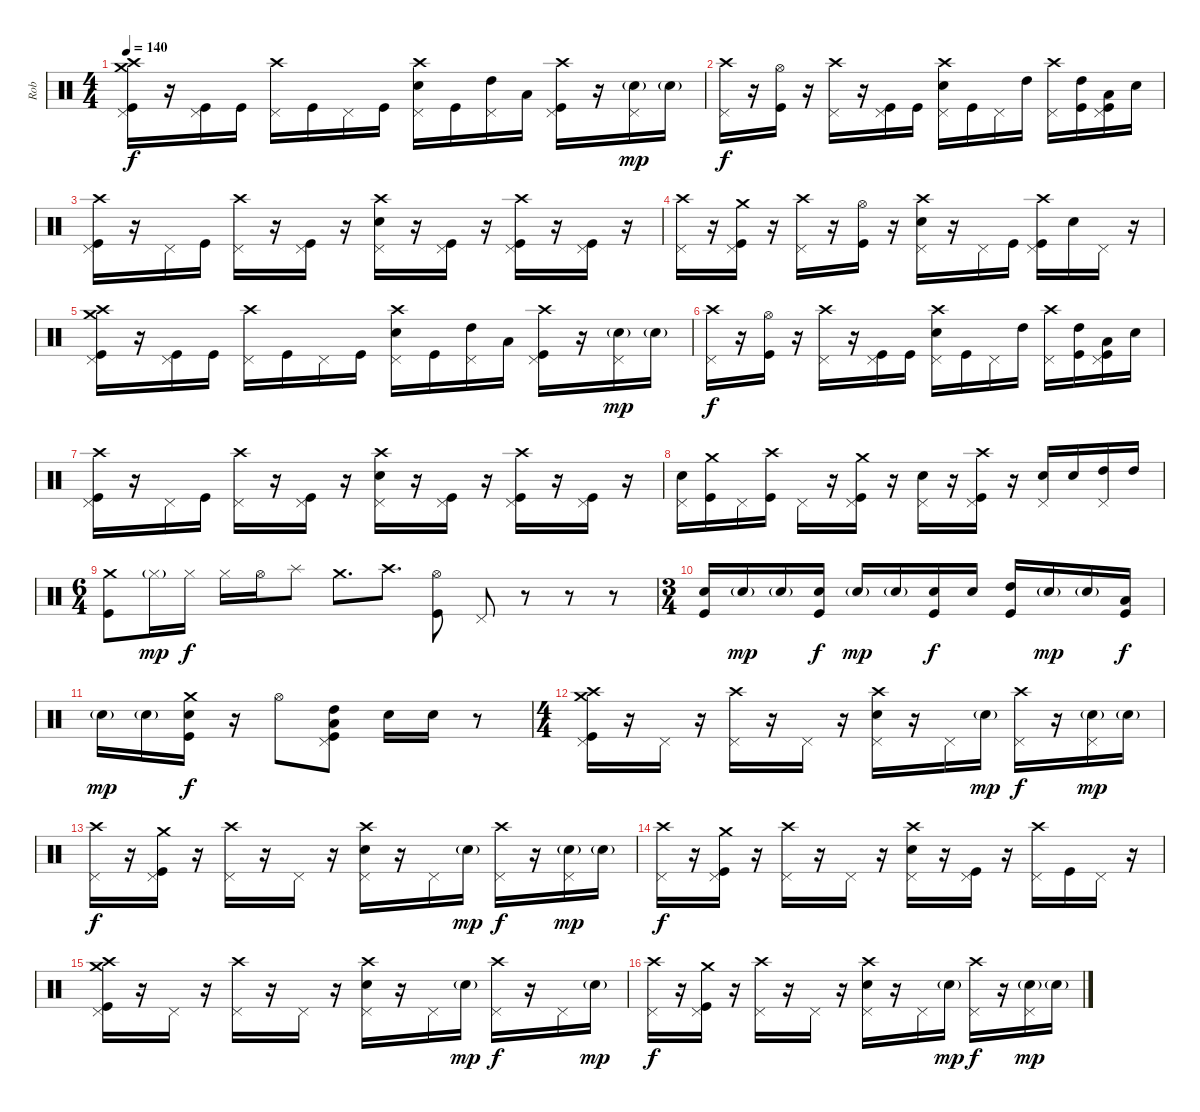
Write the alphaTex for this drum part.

\track ("Rob" "Rob") {instrument percussion}
\staff {score}
\articulation defaults
\ts (4 4)
\tempo 140
\clef neutral
\ks c
("Crash medium (hit)" "Crash high (hit)" "Pedal Hi-Hat (hit)" "Kick (hit)").16{dy f} r.16 ("Pedal Hi-Hat (hit)" "Kick (hit)").16 "Kick (hit)".16 ("Crash high (hit)" "Pedal Hi-Hat (hit)").16 "Kick (hit)".16 "Pedal Hi-Hat (hit)".16 "Kick (hit)".16 ("Electric Snare (hit)" "Crash high (hit)" "Pedal Hi-Hat (hit)").16 "Kick (hit)".16 ("High Tom (hit)" "Pedal Hi-Hat (hit)").16 "Low Tom (hit)".16 ("Crash high (hit)" "Pedal Hi-Hat (hit)" "Kick (hit)").16 r.16 ("Electric Snare (hit)"{g} "Pedal Hi-Hat (hit)").16{dy mp} "Electric Snare (hit)"{g}.16 |
("Crash high (hit)" "Pedal Hi-Hat (hit)").16{dy f} r.16 ("Hi-Hat (open)" "Kick (hit)").16 r.16 ("Crash high (hit)" "Pedal Hi-Hat (hit)").16 r.16 ("Pedal Hi-Hat (hit)" "Kick (hit)").16 "Kick (hit)".16 ("Electric Snare (hit)" "Crash high (hit)" "Pedal Hi-Hat (hit)").16 "Kick (hit)".16 "Pedal Hi-Hat (hit)".16 "High Tom (hit)".16 ("Crash high (hit)" "Pedal Hi-Hat (hit)").16 ("High Tom (hit)" "Kick (hit)").16 ("Low Tom (hit)" "Pedal Hi-Hat (hit)" "Kick (hit)").16 "Electric Snare (hit)".16 |
("Crash high (hit)" "Pedal Hi-Hat (hit)" "Kick (hit)").16 r.16 "Pedal Hi-Hat (hit)".16 "Kick (hit)".16 ("Crash high (hit)" "Pedal Hi-Hat (hit)").16 r.16 ("Pedal Hi-Hat (hit)" "Kick (hit)").16 r.16 ("Electric Snare (hit)" "Crash high (hit)" "Pedal Hi-Hat (hit)").16 r.16 ("Pedal Hi-Hat (hit)" "Kick (hit)").16 r.16 ("Crash high (hit)" "Pedal Hi-Hat (hit)" "Kick (hit)").16 r.16 ("Pedal Hi-Hat (hit)" "Kick (hit)").16 r.16 |
("Crash high (hit)" "Pedal Hi-Hat (hit)").16 r.16 ("Crash medium (hit)" "Pedal Hi-Hat (hit)" "Kick (hit)").16 r.16 ("Crash high (hit)" "Pedal Hi-Hat (hit)").16 r.16 ("Hi-Hat (open)" "Kick (hit)").16 r.16 ("Electric Snare (hit)" "Crash high (hit)" "Pedal Hi-Hat (hit)").16 r.16 "Pedal Hi-Hat (hit)".16 "Kick (hit)".16 ("Crash high (hit)" "Pedal Hi-Hat (hit)" "Kick (hit)").16 "Electric Snare (hit)".16 "Pedal Hi-Hat (hit)".16 r.16 |
("Crash medium (hit)" "Crash high (hit)" "Pedal Hi-Hat (hit)" "Kick (hit)").16 r.16 ("Pedal Hi-Hat (hit)" "Kick (hit)").16 "Kick (hit)".16 ("Crash high (hit)" "Pedal Hi-Hat (hit)").16 "Kick (hit)".16 "Pedal Hi-Hat (hit)".16 "Kick (hit)".16 ("Electric Snare (hit)" "Crash high (hit)" "Pedal Hi-Hat (hit)").16 "Kick (hit)".16 ("High Tom (hit)" "Pedal Hi-Hat (hit)").16 "Low Tom (hit)".16 ("Crash high (hit)" "Pedal Hi-Hat (hit)" "Kick (hit)").16 r.16 ("Electric Snare (hit)"{g} "Pedal Hi-Hat (hit)").16{dy mp} "Electric Snare (hit)"{g}.16 |
("Crash high (hit)" "Pedal Hi-Hat (hit)").16{dy f} r.16 ("Hi-Hat (open)" "Kick (hit)").16 r.16 ("Crash high (hit)" "Pedal Hi-Hat (hit)").16 r.16 ("Pedal Hi-Hat (hit)" "Kick (hit)").16 "Kick (hit)".16 ("Electric Snare (hit)" "Crash high (hit)" "Pedal Hi-Hat (hit)").16 "Kick (hit)".16 "Pedal Hi-Hat (hit)".16 "High Tom (hit)".16 ("Crash high (hit)" "Pedal Hi-Hat (hit)").16 ("High Tom (hit)" "Kick (hit)").16 ("Low Tom (hit)" "Pedal Hi-Hat (hit)" "Kick (hit)").16 "Electric Snare (hit)".16 |
("Crash high (hit)" "Pedal Hi-Hat (hit)" "Kick (hit)").16 r.16 "Pedal Hi-Hat (hit)".16 "Kick (hit)".16 ("Crash high (hit)" "Pedal Hi-Hat (hit)").16 r.16 ("Pedal Hi-Hat (hit)" "Kick (hit)").16 r.16 ("Electric Snare (hit)" "Crash high (hit)" "Pedal Hi-Hat (hit)").16 r.16 ("Pedal Hi-Hat (hit)" "Kick (hit)").16 r.16 ("Crash high (hit)" "Pedal Hi-Hat (hit)" "Kick (hit)").16 r.16 ("Pedal Hi-Hat (hit)" "Kick (hit)").16 r.16 |
("Electric Snare (hit)" "Pedal Hi-Hat (hit)").16 ("Crash medium (hit)" "Kick (hit)").16 "Pedal Hi-Hat (hit)".16 ("Crash high (hit)" "Kick (hit)").16 "Pedal Hi-Hat (hit)".16 r.16 ("Crash medium (hit)" "Pedal Hi-Hat (hit)" "Kick (hit)").16 r.16 ("Electric Snare (hit)" "Pedal Hi-Hat (hit)").16 r.16 ("Crash high (hit)" "Pedal Hi-Hat (hit)" "Kick (hit)").16 r.16 ("Electric Snare (hit)" "Pedal Hi-Hat (hit)").16 "Electric Snare (hit)".16 ("High Tom (hit)" "Pedal Hi-Hat (hit)").16 "High Tom (hit)".16 |
\ts (6 4)
("Crash medium (hit)" "Kick (hit)").8 "Hi-Hat (closed)"{g}.16{dy mp} "Hi-Hat (closed)".16{dy f} "Hi-Hat (closed)".16 "Hi-Hat (open)".16 "Splash (hit)".8 "Crash medium (hit)".8{d} "Crash high (hit)".8{d} ("Hi-Hat (open)" "Kick (hit)").8 "Pedal Hi-Hat (hit)".8 r.8 r.8 r.8 |
\ts (3 4)
("Electric Snare (hit)" "Kick (hit)").16 "Electric Snare (hit)"{g}.16{dy mp} "Electric Snare (hit)"{g}.16 ("Electric Snare (hit)" "Kick (hit)").16{dy f} "Electric Snare (hit)"{g}.16{dy mp} "Electric Snare (hit)"{g}.16 ("Electric Snare (hit)" "Kick (hit)").16{dy f} "Electric Snare (hit)".16 ("High Tom (hit)" "Kick (hit)").16 "Electric Snare (hit)"{g}.16{dy mp} "Electric Snare (hit)"{g}.16 ("Low Tom (hit)" "Kick (hit)").16{dy f} |
"Electric Snare (hit)"{g}.16{dy mp} "Electric Snare (hit)"{g}.16 ("Electric Snare (hit)" "Crash medium (hit)" "Kick (hit)").16{dy f} r.16 "Hi-Hat (open)".8 ("Low Tom (hit)" "High Tom (hit)" "Pedal Hi-Hat (hit)" "Kick (hit)").8 "Electric Snare (hit)".16 "Electric Snare (hit)".16 r.8 |
\ts (4 4)
("Crash medium (hit)" "Crash high (hit)" "Pedal Hi-Hat (hit)" "Kick (hit)").16 r.16 "Pedal Hi-Hat (hit)".16 r.16 ("Crash high (hit)" "Pedal Hi-Hat (hit)").16 r.16 "Pedal Hi-Hat (hit)".16 r.16 ("Electric Snare (hit)" "Crash high (hit)" "Pedal Hi-Hat (hit)").16 r.16 "Pedal Hi-Hat (hit)".16 "Electric Snare (hit)"{g}.16{dy mp} ("Crash high (hit)" "Pedal Hi-Hat (hit)").16{dy f} r.16 ("Electric Snare (hit)"{g} "Pedal Hi-Hat (hit)").16{dy mp} "Electric Snare (hit)"{g}.16 |
("Crash high (hit)" "Pedal Hi-Hat (hit)").16{dy f} r.16 ("Crash medium (hit)" "Pedal Hi-Hat (hit)" "Kick (hit)").16 r.16 ("Crash high (hit)" "Pedal Hi-Hat (hit)").16 r.16 "Pedal Hi-Hat (hit)".16 r.16 ("Electric Snare (hit)" "Crash high (hit)" "Pedal Hi-Hat (hit)").16 r.16 "Pedal Hi-Hat (hit)".16 "Electric Snare (hit)"{g}.16{dy mp} ("Crash high (hit)" "Pedal Hi-Hat (hit)").16{dy f} r.16 ("Electric Snare (hit)"{g} "Pedal Hi-Hat (hit)").16{dy mp} "Electric Snare (hit)"{g}.16 |
("Crash high (hit)" "Pedal Hi-Hat (hit)").16{dy f} r.16 ("Crash medium (hit)" "Pedal Hi-Hat (hit)" "Kick (hit)").16 r.16 ("Crash high (hit)" "Pedal Hi-Hat (hit)").16 r.16 "Pedal Hi-Hat (hit)".16 r.16 ("Electric Snare (hit)" "Crash high (hit)" "Pedal Hi-Hat (hit)").16 r.16 ("Pedal Hi-Hat (hit)" "Kick (hit)").16 r.16 ("Crash high (hit)" "Pedal Hi-Hat (hit)").16 "Kick (hit)".16 "Pedal Hi-Hat (hit)".16 r.16 |
("Crash medium (hit)" "Crash high (hit)" "Pedal Hi-Hat (hit)" "Kick (hit)").16 r.16 "Pedal Hi-Hat (hit)".16 r.16 ("Crash high (hit)" "Pedal Hi-Hat (hit)").16 r.16 "Pedal Hi-Hat (hit)".16 r.16 ("Electric Snare (hit)" "Crash high (hit)" "Pedal Hi-Hat (hit)").16 r.16 "Pedal Hi-Hat (hit)".16 "Electric Snare (hit)"{g}.16{dy mp} ("Crash high (hit)" "Pedal Hi-Hat (hit)").16{dy f} r.16 "Pedal Hi-Hat (hit)".16 "Electric Snare (hit)"{g}.16{dy mp} |
("Crash high (hit)" "Pedal Hi-Hat (hit)").16{dy f} r.16 ("Crash medium (hit)" "Pedal Hi-Hat (hit)" "Kick (hit)").16 r.16 ("Crash high (hit)" "Pedal Hi-Hat (hit)").16 r.16 "Pedal Hi-Hat (hit)".16 r.16 ("Electric Snare (hit)" "Crash high (hit)" "Pedal Hi-Hat (hit)").16 r.16 "Pedal Hi-Hat (hit)".16 "Electric Snare (hit)"{g}.16{dy mp} ("Crash high (hit)" "Pedal Hi-Hat (hit)").16{dy f} r.16 ("Electric Snare (hit)"{g} "Pedal Hi-Hat (hit)").16{dy mp} "Electric Snare (hit)"{g}.16
